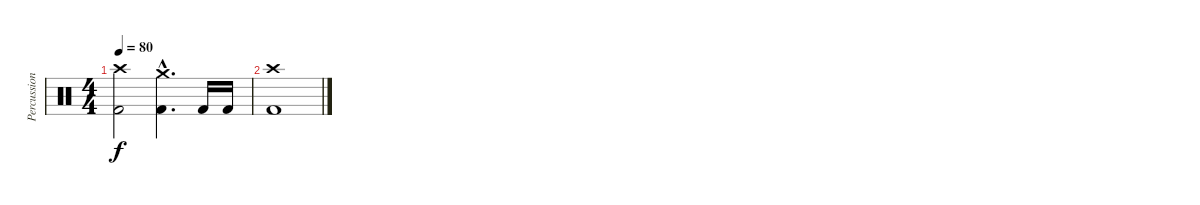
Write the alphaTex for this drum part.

\track ("Percussioni" "Percussion") {instrument percussion}
\staff {score}
\articulation defaults
\ts (4 4)
\tempo 80
\clef neutral
\ks c
("Crash high (hit)" "Kick (hit) 2").2{dy f} ("Crash medium (hit)"{hac} "Kick (hit) 2"{hac}).4{d} "Kick (hit) 2".16 "Kick (hit) 2".16 |
("Crash high (hit)" "Kick (hit) 2").1
